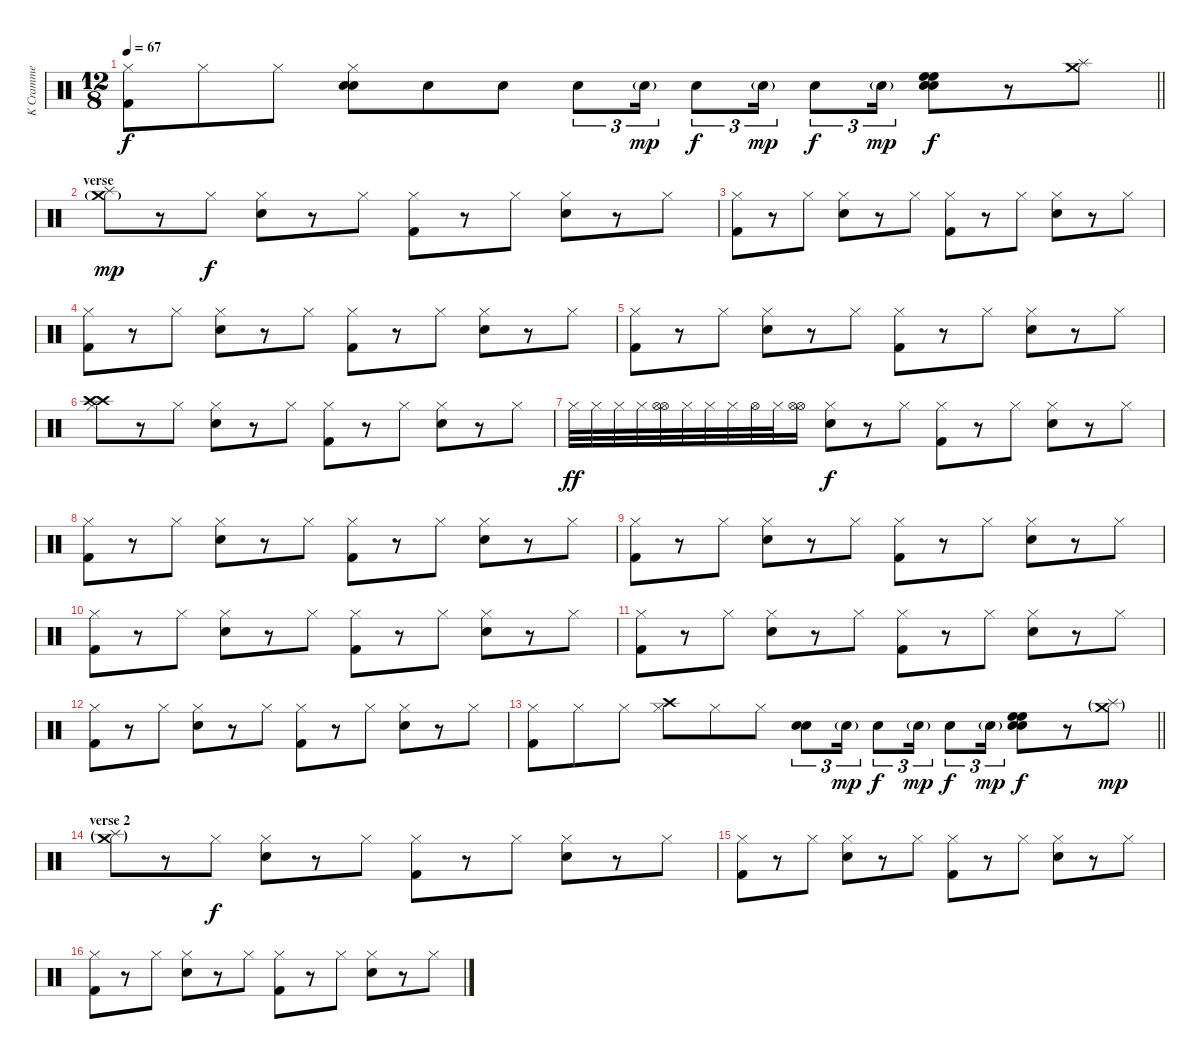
\track ("K Cramme" "K Cramme") {instrument percussion}
\staff {score}
\articulation defaults
\ts (12 8)
\tempo 67
\clef neutral
\barLineRight lightlight
\ks c
("Kick (hit) 2" "Hi-Hat (closed)").8{dy f} "Hi-Hat (closed)".8 "Hi-Hat (closed)".8 ("Snare (hit) 2" "Snare (hit) 2" "Hi-Hat (closed)").8 "Snare (hit) 2".8 "Snare (hit) 2".8 "Snare (hit) 2".8{tu (3 2)} "Snare (hit) 2"{g}.16{tu (3 2) dy mp} "Snare (hit) 2".8{tu (3 2) dy f} "Snare (hit) 2"{g}.16{tu (3 2) dy mp} "Snare (hit) 2".8{tu (3 2) dy f} "Snare (hit) 2"{g}.16{tu (3 2) dy mp} ("High Floor Tom (hit)" "High Floor Tom (hit)" "Snare (hit) 2" "Snare (hit) 2").8{dy f} r.8 ("Splash (hit)" "Crash medium (hit)").8 |
\section ("" "verse")
("Splash (hit)" "Crash medium (hit)"{g}).8{dy mp} r.8 "Hi-Hat (closed)".8{dy f} ("Snare (hit) 2" "Hi-Hat (closed)").8 r.8 "Hi-Hat (closed)".8 ("Kick (hit) 2" "Hi-Hat (closed)").8 r.8 "Hi-Hat (closed)".8 ("Snare (hit) 2" "Hi-Hat (closed)").8 r.8 "Hi-Hat (closed)".8 |
("Kick (hit) 2" "Hi-Hat (closed)").8 r.8 "Hi-Hat (closed)".8 ("Snare (hit) 2" "Hi-Hat (closed)").8 r.8 "Hi-Hat (closed)".8 ("Kick (hit) 2" "Hi-Hat (closed)").8 r.8 "Hi-Hat (closed)".8 ("Snare (hit) 2" "Hi-Hat (closed)").8 r.8 "Hi-Hat (closed)".8 |
("Kick (hit) 2" "Hi-Hat (closed)").8 r.8 "Hi-Hat (closed)".8 ("Snare (hit) 2" "Hi-Hat (closed)").8 r.8 "Hi-Hat (closed)".8 ("Kick (hit) 2" "Hi-Hat (closed)").8 r.8 "Hi-Hat (closed)".8 ("Snare (hit) 2" "Hi-Hat (closed)").8 r.8 "Hi-Hat (closed)".8 |
("Kick (hit) 2" "Hi-Hat (closed)").8 r.8 "Hi-Hat (closed)".8 ("Snare (hit) 2" "Hi-Hat (closed)").8 r.8 "Hi-Hat (closed)".8 ("Kick (hit) 2" "Hi-Hat (closed)").8 r.8 "Hi-Hat (closed)".8 ("Snare (hit) 2" "Hi-Hat (closed)").8 r.8 "Hi-Hat (closed)".8 |
("Crash high (hit)" "Crash high (hit)" "Hi-Hat (closed)").8 r.8 "Hi-Hat (closed)".8 ("Snare (hit) 2" "Hi-Hat (closed)").8 r.8 "Hi-Hat (closed)".8 ("Kick (hit) 2" "Hi-Hat (closed)").8 r.8 "Hi-Hat (closed)".8 ("Snare (hit) 2" "Hi-Hat (closed)").8 r.8 "Hi-Hat (closed)".8 |
"Hi-Hat (closed)".32{dy ff} "Hi-Hat (closed)".32 "Hi-Hat (closed)".32 "Hi-Hat (closed)".32 ("Hi-Hat (open)" "Hi-Hat (open)").32 "Hi-Hat (closed)".32 "Hi-Hat (closed)".32 "Hi-Hat (closed)".32 "Hi-Hat (open)".32 "Hi-Hat (closed)".32 ("Hi-Hat (open)" "Hi-Hat (open)").16 ("Snare (hit) 2" "Hi-Hat (closed)").8{dy f} r.8 "Hi-Hat (closed)".8 ("Kick (hit) 2" "Hi-Hat (closed)").8 r.8 "Hi-Hat (closed)".8 ("Snare (hit) 2" "Hi-Hat (closed)").8 r.8 "Hi-Hat (closed)".8 |
("Kick (hit) 2" "Hi-Hat (closed)").8 r.8 "Hi-Hat (closed)".8 ("Snare (hit) 2" "Hi-Hat (closed)").8 r.8 "Hi-Hat (closed)".8 ("Kick (hit) 2" "Hi-Hat (closed)").8 r.8 "Hi-Hat (closed)".8 ("Snare (hit) 2" "Hi-Hat (closed)").8 r.8 "Hi-Hat (closed)".8 |
("Kick (hit) 2" "Hi-Hat (closed)").8 r.8 "Hi-Hat (closed)".8 ("Snare (hit) 2" "Hi-Hat (closed)").8 r.8 "Hi-Hat (closed)".8 ("Kick (hit) 2" "Hi-Hat (closed)").8 r.8 "Hi-Hat (closed)".8 ("Snare (hit) 2" "Hi-Hat (closed)").8 r.8 "Hi-Hat (closed)".8 |
("Kick (hit) 2" "Hi-Hat (closed)").8 r.8 "Hi-Hat (closed)".8 ("Snare (hit) 2" "Hi-Hat (closed)").8 r.8 "Hi-Hat (closed)".8 ("Kick (hit) 2" "Hi-Hat (closed)").8 r.8 "Hi-Hat (closed)".8 ("Snare (hit) 2" "Hi-Hat (closed)").8 r.8 "Hi-Hat (closed)".8 |
("Kick (hit) 2" "Hi-Hat (closed)").8 r.8 "Hi-Hat (closed)".8 ("Snare (hit) 2" "Hi-Hat (closed)").8 r.8 "Hi-Hat (closed)".8 ("Kick (hit) 2" "Hi-Hat (closed)").8 r.8 "Hi-Hat (closed)".8 ("Snare (hit) 2" "Hi-Hat (closed)").8 r.8 "Hi-Hat (closed)".8 |
("Kick (hit) 2" "Hi-Hat (closed)").8 r.8 "Hi-Hat (closed)".8 ("Snare (hit) 2" "Hi-Hat (closed)").8 r.8 "Hi-Hat (closed)".8 ("Kick (hit) 2" "Hi-Hat (closed)").8 r.8 "Hi-Hat (closed)".8 ("Snare (hit) 2" "Hi-Hat (closed)").8 r.8 "Hi-Hat (closed)".8 |
\barLineRight lightlight
("Kick (hit) 2" "Hi-Hat (closed)").8 "Hi-Hat (closed)".8 "Hi-Hat (closed)".8 ("Crash high (hit)" "Hi-Hat (closed)").8 "Hi-Hat (closed)".8 "Hi-Hat (closed)".8 ("Snare (hit) 2" "Snare (hit) 2").8{tu (3 2)} "Snare (hit) 2"{g}.16{tu (3 2) dy mp} "Snare (hit) 2".8{tu (3 2) dy f} "Snare (hit) 2"{g}.16{tu (3 2) dy mp} "Snare (hit) 2".8{tu (3 2) dy f} "Snare (hit) 2"{g}.16{tu (3 2) dy mp} ("High Floor Tom (hit)" "High Floor Tom (hit)" "Snare (hit) 2" "Snare (hit) 2").8{dy f} r.8 ("Splash (hit)"{g} "Crash medium (hit)"{g}).8{dy mp} |
\section ("" "verse 2")
("Splash (hit)"{g} "Crash medium (hit)"{g}).8 r.8 "Hi-Hat (closed)".8{dy f} ("Snare (hit) 2" "Hi-Hat (closed)").8 r.8 "Hi-Hat (closed)".8 ("Kick (hit) 2" "Hi-Hat (closed)").8 r.8 "Hi-Hat (closed)".8 ("Snare (hit) 2" "Hi-Hat (closed)").8 r.8 "Hi-Hat (closed)".8 |
("Kick (hit) 2" "Hi-Hat (closed)").8 r.8 "Hi-Hat (closed)".8 ("Snare (hit) 2" "Hi-Hat (closed)").8 r.8 "Hi-Hat (closed)".8 ("Kick (hit) 2" "Hi-Hat (closed)").8 r.8 "Hi-Hat (closed)".8 ("Snare (hit) 2" "Hi-Hat (closed)").8 r.8 "Hi-Hat (closed)".8 |
("Kick (hit) 2" "Hi-Hat (closed)").8 r.8 "Hi-Hat (closed)".8 ("Snare (hit) 2" "Hi-Hat (closed)").8 r.8 "Hi-Hat (closed)".8 ("Kick (hit) 2" "Hi-Hat (closed)").8 r.8 "Hi-Hat (closed)".8 ("Snare (hit) 2" "Hi-Hat (closed)").8 r.8 "Hi-Hat (closed)".8
